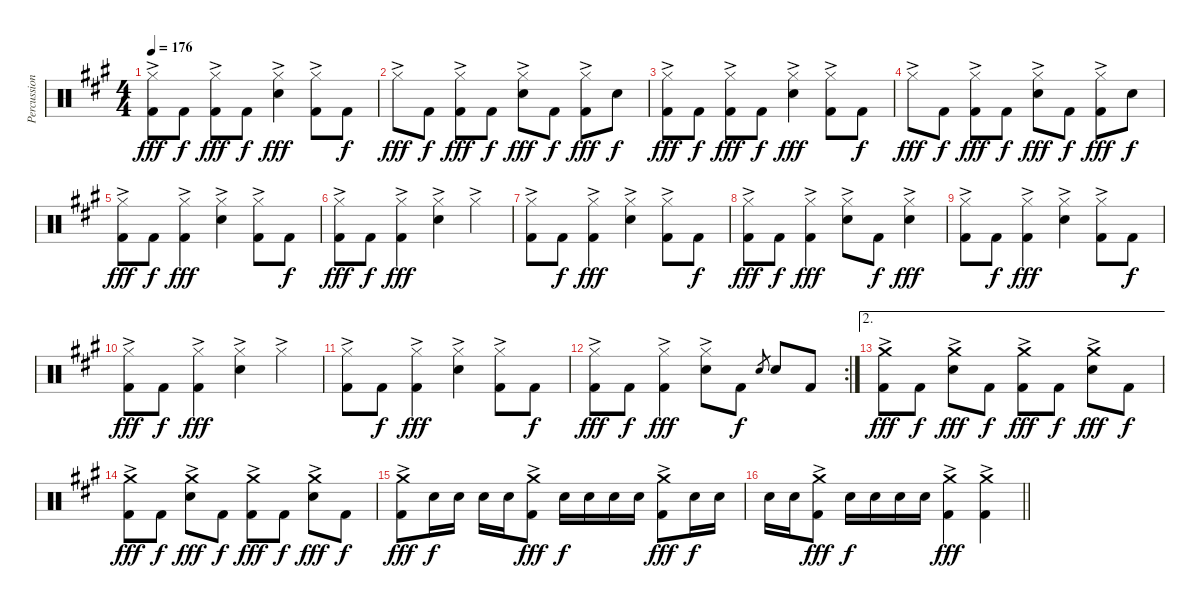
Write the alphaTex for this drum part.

\track ("Percussion" "Percussion") {instrument percussion}
\staff {score}
\articulation defaults
\ts (4 4)
\tempo 176
\clef neutral
\ks a
("Hi-Hat (closed)"{ac} "Kick (hit) 2").8{dy fff} "Kick (hit) 2".8{dy f} ("Hi-Hat (closed)"{ac} "Kick (hit) 2").8{dy fff} "Kick (hit) 2".8{dy f} ("Hi-Hat (closed)"{ac} "Snare (hit) 2").4{dy fff} ("Hi-Hat (closed)"{ac} "Kick (hit) 2").8 "Kick (hit) 2".8{dy f} |
"Hi-Hat (closed)"{ac}.8{dy fff} "Kick (hit) 2".8{dy f} ("Hi-Hat (closed)"{ac} "Kick (hit) 2").8{dy fff} "Kick (hit) 2".8{dy f} ("Hi-Hat (closed)"{ac} "Snare (hit) 2").8{dy fff} "Kick (hit) 2".8{dy f} ("Hi-Hat (closed)"{ac} "Kick (hit) 2").8{dy fff} "Snare (hit) 2".8{dy f} |
("Hi-Hat (closed)"{ac} "Kick (hit) 2").8{dy fff} "Kick (hit) 2".8{dy f} ("Hi-Hat (closed)"{ac} "Kick (hit) 2").8{dy fff} "Kick (hit) 2".8{dy f} ("Hi-Hat (closed)"{ac} "Snare (hit) 2").4{dy fff} ("Hi-Hat (closed)"{ac} "Kick (hit) 2").8 "Kick (hit) 2".8{dy f} |
"Hi-Hat (closed)"{ac}.8{dy fff} "Kick (hit) 2".8{dy f} ("Hi-Hat (closed)"{ac} "Kick (hit) 2").8{dy fff} "Kick (hit) 2".8{dy f} ("Hi-Hat (closed)"{ac} "Snare (hit) 2").8{dy fff} "Kick (hit) 2".8{dy f} ("Hi-Hat (closed)"{ac} "Kick (hit) 2").8{dy fff} "Snare (hit) 2".8{dy f} |
("Hi-Hat (closed)"{ac} "Kick (hit) 2").8{dy fff} "Kick (hit) 2".8{dy f} ("Hi-Hat (closed)"{ac} "Kick (hit) 2").4{dy fff} ("Hi-Hat (closed)"{ac} "Snare (hit) 2").4 ("Hi-Hat (closed)"{ac} "Kick (hit) 2").8 "Kick (hit) 2".8{dy f} |
("Hi-Hat (closed)"{ac} "Kick (hit) 2").8{dy fff} "Kick (hit) 2".8{dy f} ("Hi-Hat (closed)"{ac} "Kick (hit) 2").4{dy fff} ("Hi-Hat (closed)"{ac} "Snare (hit) 2").4 "Hi-Hat (closed)"{ac}.4 |
("Hi-Hat (closed)"{ac} "Kick (hit) 2").8 "Kick (hit) 2".8{dy f} ("Hi-Hat (closed)"{ac} "Kick (hit) 2").4{dy fff} ("Hi-Hat (closed)"{ac} "Snare (hit) 2").4 ("Hi-Hat (closed)"{ac} "Kick (hit) 2").8 "Kick (hit) 2".8{dy f} |
("Hi-Hat (closed)"{ac} "Kick (hit) 2").8{dy fff} "Kick (hit) 2".8{dy f} ("Hi-Hat (closed)"{ac} "Kick (hit) 2").4{dy fff} ("Hi-Hat (closed)"{ac} "Snare (hit) 2").8 "Kick (hit) 2".8{dy f} ("Hi-Hat (closed)"{ac} "Snare (hit) 2").4{dy fff} |
("Hi-Hat (closed)"{ac} "Kick (hit) 2").8 "Kick (hit) 2".8{dy f} ("Hi-Hat (closed)"{ac} "Kick (hit) 2").4{dy fff} ("Hi-Hat (closed)"{ac} "Snare (hit) 2").4 ("Hi-Hat (closed)"{ac} "Kick (hit) 2").8 "Kick (hit) 2".8{dy f} |
("Hi-Hat (closed)"{ac} "Kick (hit) 2").8{dy fff} "Kick (hit) 2".8{dy f} ("Hi-Hat (closed)"{ac} "Kick (hit) 2").4{dy fff} ("Hi-Hat (closed)"{ac} "Snare (hit) 2").4 "Hi-Hat (closed)"{ac}.4 |
("Hi-Hat (closed)"{ac} "Kick (hit) 2").8 "Kick (hit) 2".8{dy f} ("Hi-Hat (closed)"{ac} "Kick (hit) 2").4{dy fff} ("Hi-Hat (closed)"{ac} "Snare (hit) 2").4 ("Hi-Hat (closed)"{ac} "Kick (hit) 2").8 "Kick (hit) 2".8{dy f} |
\rc 2
("Hi-Hat (closed)"{ac} "Kick (hit) 2").8{dy fff} "Kick (hit) 2".8{dy f} ("Hi-Hat (closed)"{ac} "Kick (hit) 2").4{dy fff} ("Hi-Hat (closed)"{ac} "Snare (hit) 2").8 "Kick (hit) 2".8{dy f} "Snare (hit) 2".8{gr} "Snare (hit) 2".8 "Kick (hit) 2".8 |
\ae 2
("Crash medium (hit)"{ac} "Kick (hit) 2").8{dy fff} "Kick (hit) 2".8{dy f} ("Crash medium (hit)"{ac} "Snare (hit) 2").8{dy fff} "Kick (hit) 2".8{dy f} ("Crash medium (hit)"{ac} "Kick (hit) 2").8{dy fff} "Kick (hit) 2".8{dy f} ("Crash medium (hit)"{ac} "Snare (hit) 2").8{dy fff} "Kick (hit) 2".8{dy f} |
("Crash medium (hit)"{ac} "Kick (hit) 2").8{dy fff} "Kick (hit) 2".8{dy f} ("Crash medium (hit)"{ac} "Snare (hit) 2").8{dy fff} "Kick (hit) 2".8{dy f} ("Crash medium (hit)"{ac} "Kick (hit) 2").8{dy fff} "Kick (hit) 2".8{dy f} ("Crash medium (hit)"{ac} "Snare (hit) 2").8{dy fff} "Kick (hit) 2".8{dy f} |
("Crash medium (hit)"{ac} "Kick (hit) 2"{ac}).8{dy fff} "Snare (hit) 2".16{dy f} "Snare (hit) 2".16 "Snare (hit) 2".16 "Snare (hit) 2".16 ("Crash medium (hit)"{ac} "Kick (hit) 2"{ac}).8{dy fff} "Snare (hit) 2".16{dy f} "Snare (hit) 2".16 "Snare (hit) 2".16 "Snare (hit) 2".16 ("Crash medium (hit)"{ac} "Kick (hit) 2"{ac}).8{dy fff} "Snare (hit) 2".16{dy f} "Snare (hit) 2".16 |
\barLineRight lightlight "Snare (hit) 2".16 "Snare (hit) 2".16
("Crash medium (hit)"{ac} "Kick (hit) 2"{ac}).8{dy fff} "Snare (hit) 2".16{dy f} "Snare (hit) 2".16 "Snare (hit) 2".16 "Snare (hit) 2".16 ("Crash medium (hit)"{ac} "Kick (hit) 2"{ac}).4{dy fff} ("Crash medium (hit)"{ac} "Kick (hit) 2"{ac}).4
